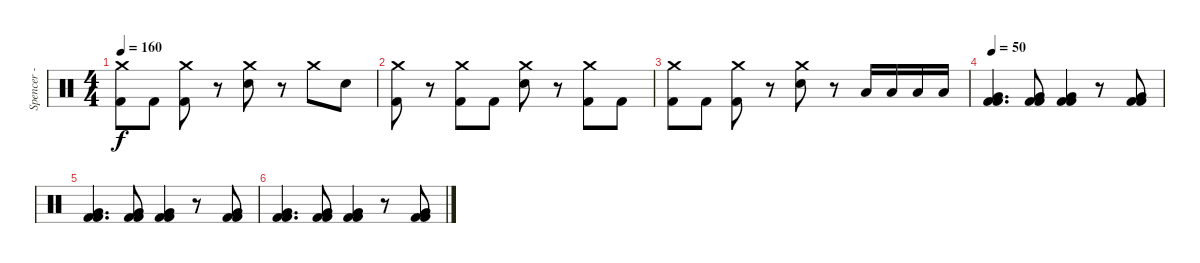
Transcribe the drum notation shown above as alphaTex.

\track ("Spencer - Drums" "Spencer - ") {instrument percussion}
\staff {score}
\articulation defaults
\ts (4 4)
\tempo 160
\clef neutral
\ks c
("Crash medium (hit)" "Kick (hit) 2").8{dy f} "Kick (hit) 2".8 ("Crash medium (hit)" "Kick (hit) 2").8 r.8 ("Crash medium (hit)" "Electric Snare (hit)").8 r.8 "Crash medium (hit)".8 "Electric Snare (hit)".8 |
("Crash medium (hit)" "Kick (hit) 2").8 r.8 ("Crash medium (hit)" "Kick (hit) 2").8 "Kick (hit) 2".8 ("Crash medium (hit)" "Electric Snare (hit)").8 r.8 ("Crash medium (hit)" "Kick (hit) 2").8 "Kick (hit) 2".8 |
("Crash medium (hit)" "Kick (hit) 2").8 "Kick (hit) 2".8 ("Crash medium (hit)" "Kick (hit) 2").8 r.8 ("Crash medium (hit)" "Electric Snare (hit)").8 r.8 "Low Tom (hit)".16 "Low Tom (hit)".16 "Low Tom (hit)".16 "Low Tom (hit)".16 |
\tempo 50
("Very Low Tom (hit)" "Kick (hit) 2" "Kick (hit) 2").4{d} ("Very Low Tom (hit)" "Kick (hit) 2" "Kick (hit) 2").8 ("Very Low Tom (hit)" "Kick (hit) 2" "Kick (hit) 2").4 r.8 ("Very Low Tom (hit)" "Kick (hit) 2" "Kick (hit) 2").8 |
("Very Low Tom (hit)" "Kick (hit) 2" "Kick (hit) 2").4{d} ("Very Low Tom (hit)" "Kick (hit) 2" "Kick (hit) 2").8 ("Very Low Tom (hit)" "Kick (hit) 2" "Kick (hit) 2").4 r.8 ("Very Low Tom (hit)" "Kick (hit) 2" "Kick (hit) 2").8 |
("Very Low Tom (hit)" "Kick (hit) 2" "Kick (hit) 2").4{d} ("Very Low Tom (hit)" "Kick (hit) 2" "Kick (hit) 2").8 ("Very Low Tom (hit)" "Kick (hit) 2" "Kick (hit) 2").4 r.8 ("Very Low Tom (hit)" "Kick (hit) 2" "Kick (hit) 2").8
